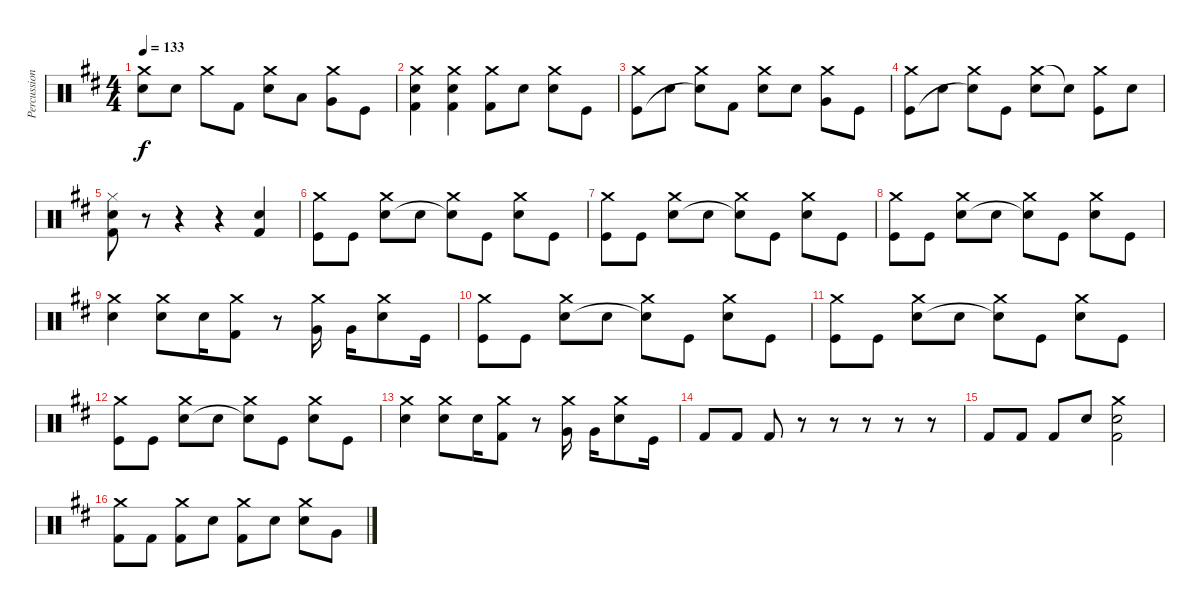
\track ("Percussion" "Percussion") {instrument percussion}
\staff {score}
\articulation defaults
\ts (4 4)
\tempo 133
\clef neutral
\ks d
("Crash medium (hit)" "Electric Snare (hit)").8{dy f} "Snare (hit) 2".8 "Crash medium (hit)".8 "Kick (hit) 2".8 ("Crash medium (hit)" "Snare (hit) 2").8 "Low Tom (hit)".8 ("Crash medium (hit)" "Very Low Tom (hit)").8 "Kick (hit)".8 |
("Crash medium (hit)" "Electric Snare (hit)" "Kick (hit) 2").4 ("Crash medium (hit)" "Electric Snare (hit)" "Kick (hit) 2").4 ("Crash medium (hit)" "Kick (hit) 2").8 "Electric Snare (hit)".8 ("Crash medium (hit)" "Snare (hit) 2").8 "Kick (hit)".8 |
("Crash medium (hit)" "Kick (hit)").8 "Electric Snare (hit)".8 ("Crash medium (hit)" "Snare (hit)"{t}).8 "Kick (hit) 2".8 ("Crash medium (hit)" "Snare (hit) 2").8 "Electric Snare (hit)".8 ("Crash medium (hit)" "Very Low Tom (hit)").8 "Kick (hit)".8 |
("Crash medium (hit)" "Kick (hit)").8 "Snare (hit) 2".8 ("Crash medium (hit)" "Snare (hit)"{t}).8 "Kick (hit)".8 ("Crash medium (hit)" "Snare (hit) 2").8 "Snare (hit)"{t}.8 ("Crash medium (hit)" "Kick (hit)").8 "Snare (hit) 2".8 |
("Hi-Hat (closed)" "Electric Snare (hit)" "Kick (hit) 2").8 r.8 r.4 r.4 ("Electric Snare (hit)" "Kick (hit) 2").4 |
("Crash medium (hit)" "Kick (hit)").8 "Kick (hit)".8 ("Crash medium (hit)" "Electric Snare (hit)").8 "Snare (hit) 2".8 ("Crash medium (hit)" "Snare (hit)"{t}).8 "Kick (hit)".8 ("Crash medium (hit)" "Snare (hit) 2").8 "Kick (hit)".8 |
("Crash medium (hit)" "Kick (hit)").8 "Kick (hit)".8 ("Crash medium (hit)" "Electric Snare (hit)").8 "Snare (hit) 2".8 ("Crash medium (hit)" "Snare (hit)"{t}).8 "Kick (hit)".8 ("Crash medium (hit)" "Snare (hit) 2").8 "Kick (hit)".8 |
("Crash medium (hit)" "Kick (hit)").8 "Kick (hit)".8 ("Crash medium (hit)" "Electric Snare (hit)").8 "Snare (hit) 2".8 ("Crash medium (hit)" "Snare (hit)"{t}).8 "Kick (hit)".8 ("Crash medium (hit)" "Snare (hit) 2").8 "Kick (hit)".8 |
("Crash medium (hit)" "Snare (hit) 2").4 ("Crash medium (hit)" "Electric Snare (hit)").8 "Electric Snare (hit)".16 ("Crash medium (hit)" "Kick (hit) 2").8 r.8 ("Crash medium (hit)" "Very Low Tom (hit)").16 "Very Low Tom (hit)".16 ("Crash medium (hit)" "Snare (hit) 2").8 "Kick (hit)".16 |
("Crash medium (hit)" "Kick (hit)").8 "Kick (hit)".8 ("Crash medium (hit)" "Electric Snare (hit)").8 "Snare (hit) 2".8 ("Crash medium (hit)" "Snare (hit)"{t}).8 "Kick (hit)".8 ("Crash medium (hit)" "Snare (hit) 2").8 "Kick (hit)".8 |
("Crash medium (hit)" "Kick (hit)").8 "Kick (hit)".8 ("Crash medium (hit)" "Electric Snare (hit)").8 "Snare (hit) 2".8 ("Crash medium (hit)" "Snare (hit)"{t}).8 "Kick (hit)".8 ("Crash medium (hit)" "Snare (hit) 2").8 "Kick (hit)".8 |
("Crash medium (hit)" "Kick (hit)").8 "Kick (hit)".8 ("Crash medium (hit)" "Electric Snare (hit)").8 "Snare (hit) 2".8 ("Crash medium (hit)" "Snare (hit)"{t}).8 "Kick (hit)".8 ("Crash medium (hit)" "Snare (hit) 2").8 "Kick (hit)".8 |
("Crash medium (hit)" "Snare (hit) 2").4 ("Crash medium (hit)" "Electric Snare (hit)").8 "Electric Snare (hit)".16 ("Crash medium (hit)" "Kick (hit) 2").8 r.8 ("Crash medium (hit)" "Very Low Tom (hit)").16 "Very Low Tom (hit)".16 ("Crash medium (hit)" "Snare (hit) 2").8 "Kick (hit)".16 |
"Kick (hit) 2".8 "Kick (hit) 2".8 "Kick (hit) 2".8 r.8 r.8 r.8 r.8 r.8 |
"Kick (hit) 2".8 "Kick (hit) 2".8 "Kick (hit) 2".8 "Electric Snare (hit)".8 ("Crash medium (hit)" "Snare (hit) 2" "Kick (hit) 2").2 |
("Crash medium (hit)" "Kick (hit) 2").8 "Kick (hit) 2".8 ("Crash medium (hit)" "Kick (hit) 2").8 "Snare (hit) 2".8 ("Crash medium (hit)" "Kick (hit) 2").8 "Snare (hit) 2".8 ("Crash medium (hit)" "Electric Snare (hit)").8 "Very Low Tom (hit)".8
